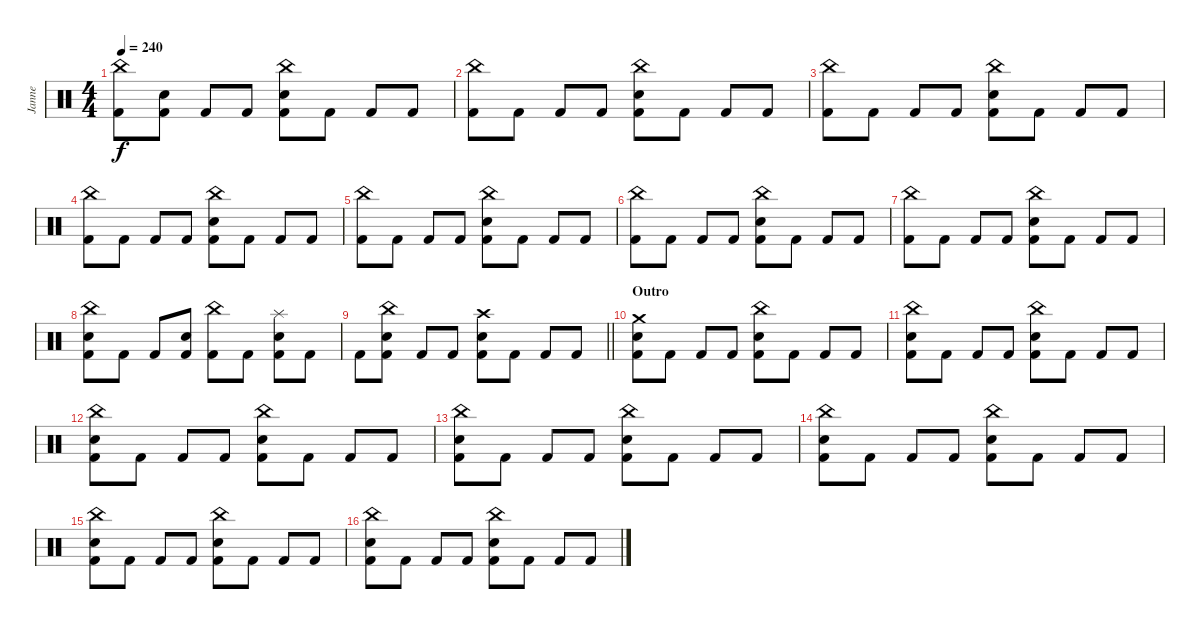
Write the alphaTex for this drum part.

\track ("Janne" "Janne") {instrument percussion}
\staff {score}
\articulation defaults
\ts (4 4)
\tempo 240
\clef neutral
\ks c
("China (hit)" "Kick (hit) 2").8{dy f} ("Electric Snare (hit)" "Kick (hit) 2").8 "Kick (hit) 2".8 "Kick (hit) 2".8 ("China (hit)" "Electric Snare (hit)" "Kick (hit) 2").8 "Kick (hit) 2".8 "Kick (hit) 2".8 "Kick (hit) 2".8 |
("China (hit)" "Kick (hit) 2").8 "Kick (hit) 2".8 "Kick (hit) 2".8 "Kick (hit) 2".8 ("China (hit)" "Electric Snare (hit)" "Kick (hit) 2").8 "Kick (hit) 2".8 "Kick (hit) 2".8 "Kick (hit) 2".8 |
("China (hit)" "Kick (hit) 2").8 "Kick (hit) 2".8 "Kick (hit) 2".8 "Kick (hit) 2".8 ("China (hit)" "Electric Snare (hit)" "Kick (hit) 2").8 "Kick (hit) 2".8 "Kick (hit) 2".8 "Kick (hit) 2".8 |
("China (hit)" "Kick (hit) 2").8 "Kick (hit) 2".8 "Kick (hit) 2".8 "Kick (hit) 2".8 ("China (hit)" "Electric Snare (hit)" "Kick (hit) 2").8 "Kick (hit) 2".8 "Kick (hit) 2".8 "Kick (hit) 2".8 |
("China (hit)" "Kick (hit) 2").8 "Kick (hit) 2".8 "Kick (hit) 2".8 "Kick (hit) 2".8 ("China (hit)" "Electric Snare (hit)" "Kick (hit) 2").8 "Kick (hit) 2".8 "Kick (hit) 2".8 "Kick (hit) 2".8 |
("China (hit)" "Kick (hit) 2").8 "Kick (hit) 2".8 "Kick (hit) 2".8 "Kick (hit) 2".8 ("China (hit)" "Electric Snare (hit)" "Kick (hit) 2").8 "Kick (hit) 2".8 "Kick (hit) 2".8 "Kick (hit) 2".8 |
("China (hit)" "Kick (hit) 2").8 "Kick (hit) 2".8 "Kick (hit) 2".8 "Kick (hit) 2".8 ("China (hit)" "Electric Snare (hit)" "Kick (hit) 2").8 "Kick (hit) 2".8 "Kick (hit) 2".8 "Kick (hit) 2".8 |
("China (hit)" "Electric Snare (hit)" "Kick (hit) 2").8 "Kick (hit) 2".8 "Kick (hit) 2".8 ("Electric Snare (hit)" "Kick (hit) 2").8 ("China (hit)" "Kick (hit) 2").8 "Kick (hit) 2".8 ("Splash (hit)" "Electric Snare (hit)" "Kick (hit) 2").8 "Kick (hit) 2".8 |
\barLineRight lightlight "Kick (hit) 2".8
("China (hit)" "Electric Snare (hit)" "Kick (hit) 2").8 "Kick (hit) 2".8 "Kick (hit) 2".8 ("Crash high (hit)" "Electric Snare (hit)" "Kick (hit) 2").8 "Kick (hit) 2".8 "Kick (hit) 2".8 "Kick (hit) 2".8 |
\section ("" "Outro")
("Crash medium (hit)" "Electric Snare (hit)" "Kick (hit) 2").8 "Kick (hit) 2".8 "Kick (hit) 2".8 "Kick (hit) 2".8 ("China (hit)" "Electric Snare (hit)" "Kick (hit) 2").8 "Kick (hit) 2".8 "Kick (hit) 2".8 "Kick (hit) 2".8 |
("China (hit)" "Electric Snare (hit)" "Kick (hit) 2").8 "Kick (hit) 2".8 "Kick (hit) 2".8 "Kick (hit) 2".8 ("China (hit)" "Electric Snare (hit)" "Kick (hit) 2").8 "Kick (hit) 2".8 "Kick (hit) 2".8 "Kick (hit) 2".8 |
("China (hit)" "Electric Snare (hit)" "Kick (hit) 2").8 "Kick (hit) 2".8 "Kick (hit) 2".8 "Kick (hit) 2".8 ("China (hit)" "Electric Snare (hit)" "Kick (hit) 2").8 "Kick (hit) 2".8 "Kick (hit) 2".8 "Kick (hit) 2".8 |
("China (hit)" "Electric Snare (hit)" "Kick (hit) 2").8 "Kick (hit) 2".8 "Kick (hit) 2".8 "Kick (hit) 2".8 ("China (hit)" "Electric Snare (hit)" "Kick (hit) 2").8 "Kick (hit) 2".8 "Kick (hit) 2".8 "Kick (hit) 2".8 |
("China (hit)" "Electric Snare (hit)" "Kick (hit) 2").8 "Kick (hit) 2".8 "Kick (hit) 2".8 "Kick (hit) 2".8 ("China (hit)" "Electric Snare (hit)" "Kick (hit) 2").8 "Kick (hit) 2".8 "Kick (hit) 2".8 "Kick (hit) 2".8 |
("China (hit)" "Electric Snare (hit)" "Kick (hit) 2").8 "Kick (hit) 2".8 "Kick (hit) 2".8 "Kick (hit) 2".8 ("China (hit)" "Electric Snare (hit)" "Kick (hit) 2").8 "Kick (hit) 2".8 "Kick (hit) 2".8 "Kick (hit) 2".8 |
("China (hit)" "Electric Snare (hit)" "Kick (hit) 2").8 "Kick (hit) 2".8 "Kick (hit) 2".8 "Kick (hit) 2".8 ("China (hit)" "Electric Snare (hit)" "Kick (hit) 2").8 "Kick (hit) 2".8 "Kick (hit) 2".8 "Kick (hit) 2".8
